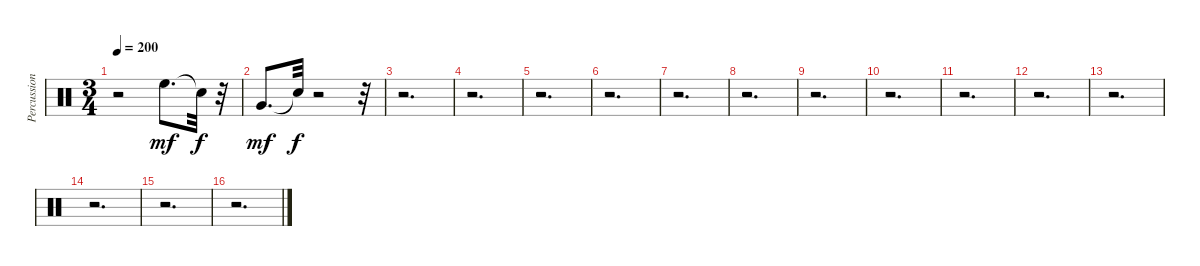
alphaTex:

\track ("Percussion." "Percussion") {instrument percussion}
\staff {score}
\articulation defaults
\ts (3 4)
\tempo 200
\clef neutral
\ks c
r.2{dy mf} "High Floor Tom (hit)".8{d volume 15 balance 7} "Snare (hit)"{t}.32{dy f} r.32 |
"Very Low Tom (hit)".8{d dy mf} "Snare (hit)"{t}.32{dy f} r.2 r.32 |
r.2{d} |
r.2{d} |
r.2{d} |
r.2{d} |
r.2{d} |
r.2{d} |
r.2{d} |
r.2{d} |
r.2{d} |
r.2{d} |
r.2{d} |
r.2{d} |
r.2{d} |
r.2{d}
